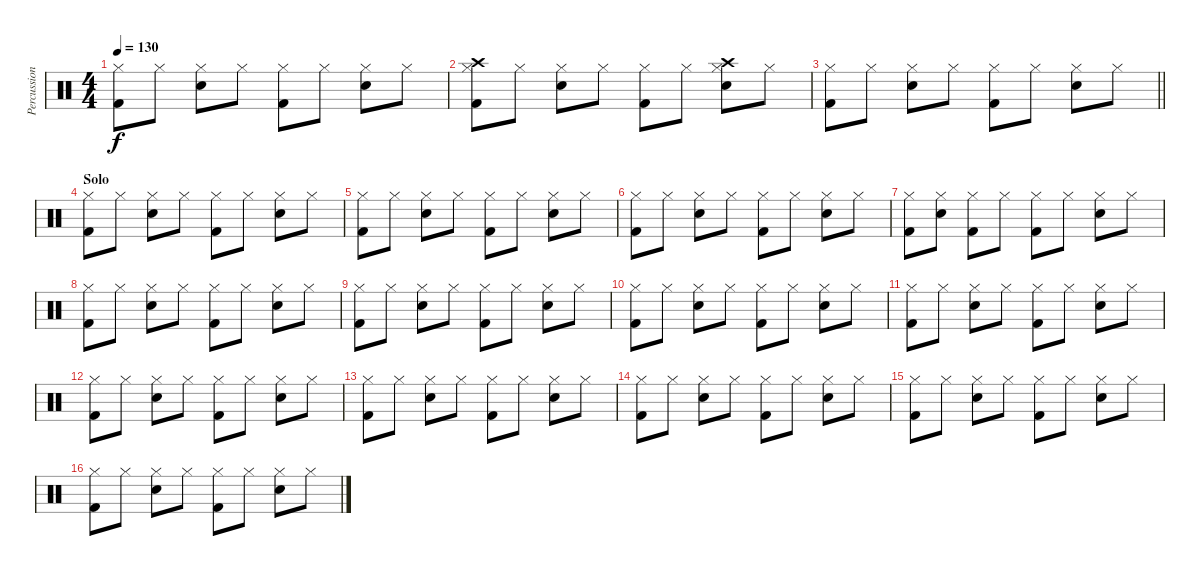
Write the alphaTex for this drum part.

\track ("Percussion" "Percussion") {instrument percussion}
\staff {score}
\articulation defaults
\ts (4 4)
\tempo 130
\clef neutral
\ks c
("Kick (hit) 2" "Hi-Hat (closed)").8{dy f} "Hi-Hat (closed)".8 ("Hi-Hat (closed)" "Snare (hit) 2").8 "Hi-Hat (closed)".8 ("Hi-Hat (closed)" "Kick (hit) 2").8 "Hi-Hat (closed)".8 ("Hi-Hat (closed)" "Snare (hit) 2").8 "Hi-Hat (closed)".8 |
("Kick (hit) 2" "Hi-Hat (closed)" "Crash high (hit)").8 "Hi-Hat (closed)".8 ("Hi-Hat (closed)" "Snare (hit) 2").8 "Hi-Hat (closed)".8 ("Hi-Hat (closed)" "Kick (hit) 2").8 "Hi-Hat (closed)".8 ("Hi-Hat (closed)" "Snare (hit) 2" "Crash high (hit)").8 "Hi-Hat (closed)".8 |
\barLineRight lightlight
("Kick (hit) 2" "Hi-Hat (closed)").8 "Hi-Hat (closed)".8 ("Hi-Hat (closed)" "Snare (hit) 2").8 "Hi-Hat (closed)".8 ("Hi-Hat (closed)" "Kick (hit) 2").8 "Hi-Hat (closed)".8 ("Hi-Hat (closed)" "Snare (hit) 2").8 "Hi-Hat (closed)".8 |
\section ("" "Solo")
("Kick (hit) 2" "Hi-Hat (closed)").8 "Hi-Hat (closed)".8 ("Hi-Hat (closed)" "Snare (hit) 2").8 "Hi-Hat (closed)".8 ("Hi-Hat (closed)" "Kick (hit) 2").8 "Hi-Hat (closed)".8 ("Hi-Hat (closed)" "Snare (hit) 2").8 "Hi-Hat (closed)".8 |
("Kick (hit) 2" "Hi-Hat (closed)").8 "Hi-Hat (closed)".8 ("Hi-Hat (closed)" "Snare (hit) 2").8 "Hi-Hat (closed)".8 ("Hi-Hat (closed)" "Kick (hit) 2").8 "Hi-Hat (closed)".8 ("Hi-Hat (closed)" "Snare (hit) 2").8 "Hi-Hat (closed)".8 |
("Kick (hit) 2" "Hi-Hat (closed)").8 "Hi-Hat (closed)".8 ("Hi-Hat (closed)" "Snare (hit) 2").8 "Hi-Hat (closed)".8 ("Hi-Hat (closed)" "Kick (hit) 2").8 "Hi-Hat (closed)".8 ("Hi-Hat (closed)" "Snare (hit) 2").8 "Hi-Hat (closed)".8 |
("Kick (hit) 2" "Hi-Hat (closed)").8 ("Hi-Hat (closed)" "Snare (hit) 2").8 ("Hi-Hat (closed)" "Kick (hit) 2").8 "Hi-Hat (closed)".8 ("Hi-Hat (closed)" "Kick (hit) 2").8 "Hi-Hat (closed)".8 ("Hi-Hat (closed)" "Snare (hit) 2").8 "Hi-Hat (closed)".8 |
("Kick (hit) 2" "Hi-Hat (closed)").8 "Hi-Hat (closed)".8 ("Hi-Hat (closed)" "Snare (hit) 2").8 "Hi-Hat (closed)".8 ("Hi-Hat (closed)" "Kick (hit) 2").8 "Hi-Hat (closed)".8 ("Hi-Hat (closed)" "Snare (hit) 2").8 "Hi-Hat (closed)".8 |
("Kick (hit) 2" "Hi-Hat (closed)").8 "Hi-Hat (closed)".8 ("Hi-Hat (closed)" "Snare (hit) 2").8 "Hi-Hat (closed)".8 ("Hi-Hat (closed)" "Kick (hit) 2").8 "Hi-Hat (closed)".8 ("Hi-Hat (closed)" "Snare (hit) 2").8 "Hi-Hat (closed)".8 |
("Kick (hit) 2" "Hi-Hat (closed)").8 "Hi-Hat (closed)".8 ("Hi-Hat (closed)" "Snare (hit) 2").8 "Hi-Hat (closed)".8 ("Hi-Hat (closed)" "Kick (hit) 2").8 "Hi-Hat (closed)".8 ("Hi-Hat (closed)" "Snare (hit) 2").8 "Hi-Hat (closed)".8 |
("Kick (hit) 2" "Hi-Hat (closed)").8 "Hi-Hat (closed)".8 ("Hi-Hat (closed)" "Snare (hit) 2").8 "Hi-Hat (closed)".8 ("Hi-Hat (closed)" "Kick (hit) 2").8 "Hi-Hat (closed)".8 ("Hi-Hat (closed)" "Snare (hit) 2").8 "Hi-Hat (closed)".8 |
("Kick (hit) 2" "Hi-Hat (closed)").8 "Hi-Hat (closed)".8 ("Hi-Hat (closed)" "Snare (hit) 2").8 "Hi-Hat (closed)".8 ("Hi-Hat (closed)" "Kick (hit) 2").8 "Hi-Hat (closed)".8 ("Hi-Hat (closed)" "Snare (hit) 2").8 "Hi-Hat (closed)".8 |
("Kick (hit) 2" "Hi-Hat (closed)").8 "Hi-Hat (closed)".8 ("Hi-Hat (closed)" "Snare (hit) 2").8 "Hi-Hat (closed)".8 ("Hi-Hat (closed)" "Kick (hit) 2").8 "Hi-Hat (closed)".8 ("Hi-Hat (closed)" "Snare (hit) 2").8 "Hi-Hat (closed)".8 |
("Kick (hit) 2" "Hi-Hat (closed)").8 "Hi-Hat (closed)".8 ("Hi-Hat (closed)" "Snare (hit) 2").8 "Hi-Hat (closed)".8 ("Hi-Hat (closed)" "Kick (hit) 2").8 "Hi-Hat (closed)".8 ("Hi-Hat (closed)" "Snare (hit) 2").8 "Hi-Hat (closed)".8 |
("Kick (hit) 2" "Hi-Hat (closed)").8 "Hi-Hat (closed)".8 ("Hi-Hat (closed)" "Snare (hit) 2").8 "Hi-Hat (closed)".8 ("Hi-Hat (closed)" "Kick (hit) 2").8 "Hi-Hat (closed)".8 ("Hi-Hat (closed)" "Snare (hit) 2").8 "Hi-Hat (closed)".8 |
("Kick (hit) 2" "Hi-Hat (closed)").8 "Hi-Hat (closed)".8 ("Hi-Hat (closed)" "Snare (hit) 2").8 "Hi-Hat (closed)".8 ("Hi-Hat (closed)" "Kick (hit) 2").8 "Hi-Hat (closed)".8 ("Hi-Hat (closed)" "Snare (hit) 2").8 "Hi-Hat (closed)".8
